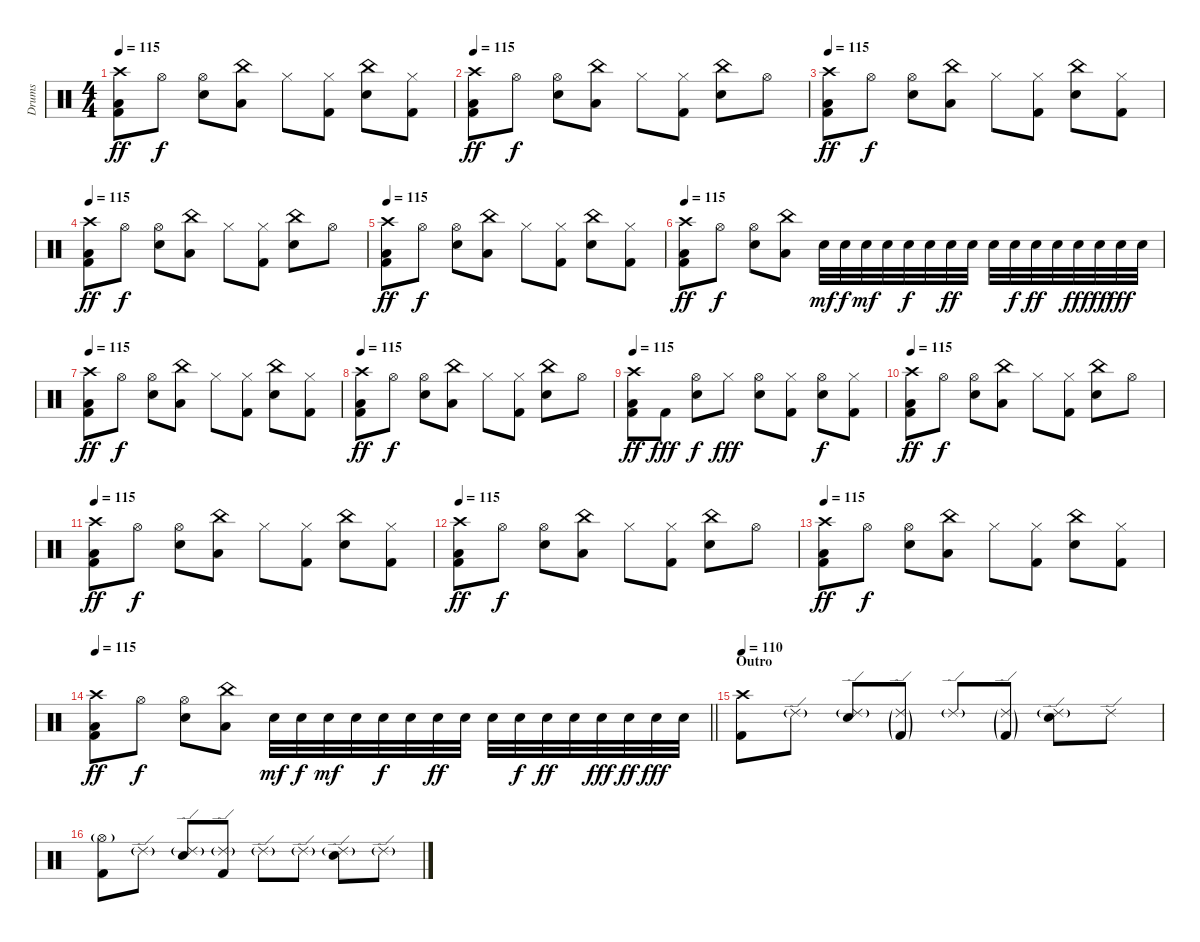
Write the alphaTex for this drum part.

\track ("Drums" "Drums") {instrument percussion}
\staff {score}
\articulation defaults
\ts (4 4)
\tempo 115
\clef neutral
\ks c
("Low Tom (hit)" "Kick (hit) 2" "Crash high (hit)").8{dy ff} "Hi-Hat (open)".8{dy f} ("Snare (hit) 2" "Hi-Hat (open)").8 ("Low Tom (hit)" "China (hit)").8 "Hi-Hat (closed)".8 ("Kick (hit) 2" "Hi-Hat (closed)").8 ("Snare (hit) 2" "China (hit)").8 ("Kick (hit) 2" "Hi-Hat (closed)").8 |
\tempo 115
("Low Tom (hit)" "Kick (hit) 2" "Crash high (hit)").8{dy ff} "Hi-Hat (open)".8{dy f} ("Snare (hit) 2" "Hi-Hat (open)").8 ("Low Tom (hit)" "China (hit)").8 "Hi-Hat (closed)".8 ("Kick (hit) 2" "Hi-Hat (closed)").8 ("Snare (hit) 2" "China (hit)").8 "Hi-Hat (open)".8 |
\tempo 115
("Low Tom (hit)" "Kick (hit) 2" "Crash high (hit)").8{dy ff} "Hi-Hat (open)".8{dy f} ("Snare (hit) 2" "Hi-Hat (open)").8 ("Low Tom (hit)" "China (hit)").8 "Hi-Hat (closed)".8 ("Kick (hit) 2" "Hi-Hat (closed)").8 ("Snare (hit) 2" "China (hit)").8 ("Kick (hit) 2" "Hi-Hat (closed)").8 |
\tempo 115
("Low Tom (hit)" "Kick (hit) 2" "Crash high (hit)").8{dy ff} "Hi-Hat (open)".8{dy f} ("Snare (hit) 2" "Hi-Hat (open)").8 ("Low Tom (hit)" "China (hit)").8 "Hi-Hat (closed)".8 ("Kick (hit) 2" "Hi-Hat (closed)").8 ("Snare (hit) 2" "China (hit)").8 "Hi-Hat (open)".8 |
\tempo 115
("Low Tom (hit)" "Kick (hit) 2" "Crash high (hit)").8{dy ff} "Hi-Hat (open)".8{dy f} ("Snare (hit) 2" "Hi-Hat (open)").8 ("Low Tom (hit)" "China (hit)").8 "Hi-Hat (closed)".8 ("Kick (hit) 2" "Hi-Hat (closed)").8 ("Snare (hit) 2" "China (hit)").8 ("Kick (hit) 2" "Hi-Hat (closed)").8 |
\tempo 115
("Low Tom (hit)" "Kick (hit) 2" "Crash high (hit)").8{dy ff} "Hi-Hat (open)".8{dy f} ("Snare (hit) 2" "Hi-Hat (open)").8 ("Low Tom (hit)" "China (hit)").8 "Snare (hit) 2".32{dy mf} "Snare (hit) 2".32{dy f} "Snare (hit) 2".32{dy mf} "Snare (hit) 2".32 "Snare (hit) 2".32{dy f} "Snare (hit) 2".32 "Snare (hit) 2".32{dy ff} "Snare (hit) 2".32 "Snare (hit) 2".32 "Snare (hit) 2".32{dy f} "Snare (hit) 2".32{dy ff} "Snare (hit) 2".32 "Snare (hit) 2".32{dy fff} "Snare (hit) 2".32{dy ff} "Snare (hit) 2".32{dy fff} "Snare (hit) 2".32 |
\tempo 115
("Low Tom (hit)" "Kick (hit) 2" "Crash high (hit)").8{dy ff} "Hi-Hat (open)".8{dy f} ("Snare (hit) 2" "Hi-Hat (open)").8 ("Low Tom (hit)" "China (hit)").8 "Hi-Hat (closed)".8 ("Kick (hit) 2" "Hi-Hat (closed)").8 ("Snare (hit) 2" "China (hit)").8 ("Kick (hit) 2" "Hi-Hat (closed)").8 |
\tempo 115
("Low Tom (hit)" "Kick (hit) 2" "Crash high (hit)").8{dy ff} "Hi-Hat (open)".8{dy f} ("Snare (hit) 2" "Hi-Hat (open)").8 ("Low Tom (hit)" "China (hit)").8 "Hi-Hat (closed)".8 ("Kick (hit) 2" "Hi-Hat (closed)").8 ("Snare (hit) 2" "China (hit)").8 "Hi-Hat (open)".8 |
\tempo 115
("Low Tom (hit)" "Kick (hit) 2" "Crash high (hit)").8{dy ff} "Kick (hit) 2".8{dy fff} ("Snare (hit) 2" "Hi-Hat (open)").8{dy f} "Hi-Hat (closed)".8{dy fff} ("Snare (hit) 2" "Hi-Hat (open)").8 ("Kick (hit) 2" "Hi-Hat (closed)").8 ("Snare (hit) 2" "Hi-Hat (open)").8{dy f} ("Kick (hit) 2" "Hi-Hat (closed)").8 |
\tempo 115
("Low Tom (hit)" "Kick (hit) 2" "Crash high (hit)").8{dy ff} "Hi-Hat (open)".8{dy f} ("Snare (hit) 2" "Hi-Hat (open)").8 ("Low Tom (hit)" "China (hit)").8 "Hi-Hat (closed)".8 ("Kick (hit) 2" "Hi-Hat (closed)").8 ("Snare (hit) 2" "China (hit)").8 "Hi-Hat (open)".8 |
\tempo 115
("Low Tom (hit)" "Kick (hit) 2" "Crash high (hit)").8{dy ff} "Hi-Hat (open)".8{dy f} ("Snare (hit) 2" "Hi-Hat (open)").8 ("Low Tom (hit)" "China (hit)").8 "Hi-Hat (closed)".8 ("Kick (hit) 2" "Hi-Hat (closed)").8 ("Snare (hit) 2" "China (hit)").8 ("Kick (hit) 2" "Hi-Hat (closed)").8 |
\tempo 115
("Low Tom (hit)" "Kick (hit) 2" "Crash high (hit)").8{dy ff} "Hi-Hat (open)".8{dy f} ("Snare (hit) 2" "Hi-Hat (open)").8 ("Low Tom (hit)" "China (hit)").8 "Hi-Hat (closed)".8 ("Kick (hit) 2" "Hi-Hat (closed)").8 ("Snare (hit) 2" "China (hit)").8 "Hi-Hat (open)".8 |
\tempo 115
("Low Tom (hit)" "Kick (hit) 2" "Crash high (hit)").8{dy ff} "Hi-Hat (open)".8{dy f} ("Snare (hit) 2" "Hi-Hat (open)").8 ("Low Tom (hit)" "China (hit)").8 "Hi-Hat (closed)".8 ("Kick (hit) 2" "Hi-Hat (closed)").8 ("Snare (hit) 2" "China (hit)").8 ("Kick (hit) 2" "Hi-Hat (closed)").8 |
\tempo 115
\barLineRight lightlight
("Low Tom (hit)" "Kick (hit) 2" "Crash high (hit)").8{dy ff} "Hi-Hat (open)".8{dy f} ("Snare (hit) 2" "Hi-Hat (open)").8 ("Low Tom (hit)" "China (hit)").8 "Snare (hit) 2".32{dy mf} "Snare (hit) 2".32{dy f} "Snare (hit) 2".32{dy mf} "Snare (hit) 2".32 "Snare (hit) 2".32{dy f} "Snare (hit) 2".32 "Snare (hit) 2".32{dy ff} "Snare (hit) 2".32 "Snare (hit) 2".32 "Snare (hit) 2".32{dy f} "Snare (hit) 2".32{dy ff} "Snare (hit) 2".32 "Snare (hit) 2".32{dy fff} "Snare (hit) 2".32{dy ff} "Snare (hit) 2".32{dy fff} "Snare (hit) 2".32 |
\section ("" "Outro")
\tempo 110
("Kick (hit) 2" "Crash high (hit)").8 "Ride (edge) 2"{g}.8 ("Electric Snare (hit)" "Ride (edge) 2"{g}).8 ("Kick (hit) 2"{g} "Ride (edge) 2"{g}).8 "Ride (edge) 2"{g}.8 ("Kick (hit) 2"{g} "Ride (edge) 2"{g}).8 ("Electric Snare (hit)" "Ride (edge) 2"{g}).8 "Ride (edge) 2".8 |
("Kick (hit) 2" "Hi-Hat (open)"{g}).8 "Ride (edge) 2"{g}.8 ("Electric Snare (hit)" "Ride (edge) 2"{g}).8 ("Kick (hit) 2" "Ride (edge) 2"{g}).8 "Ride (edge) 2"{g}.8 "Ride (edge) 2"{g}.8 ("Electric Snare (hit)" "Ride (edge) 2"{g}).8 "Ride (edge) 2"{g}.8
